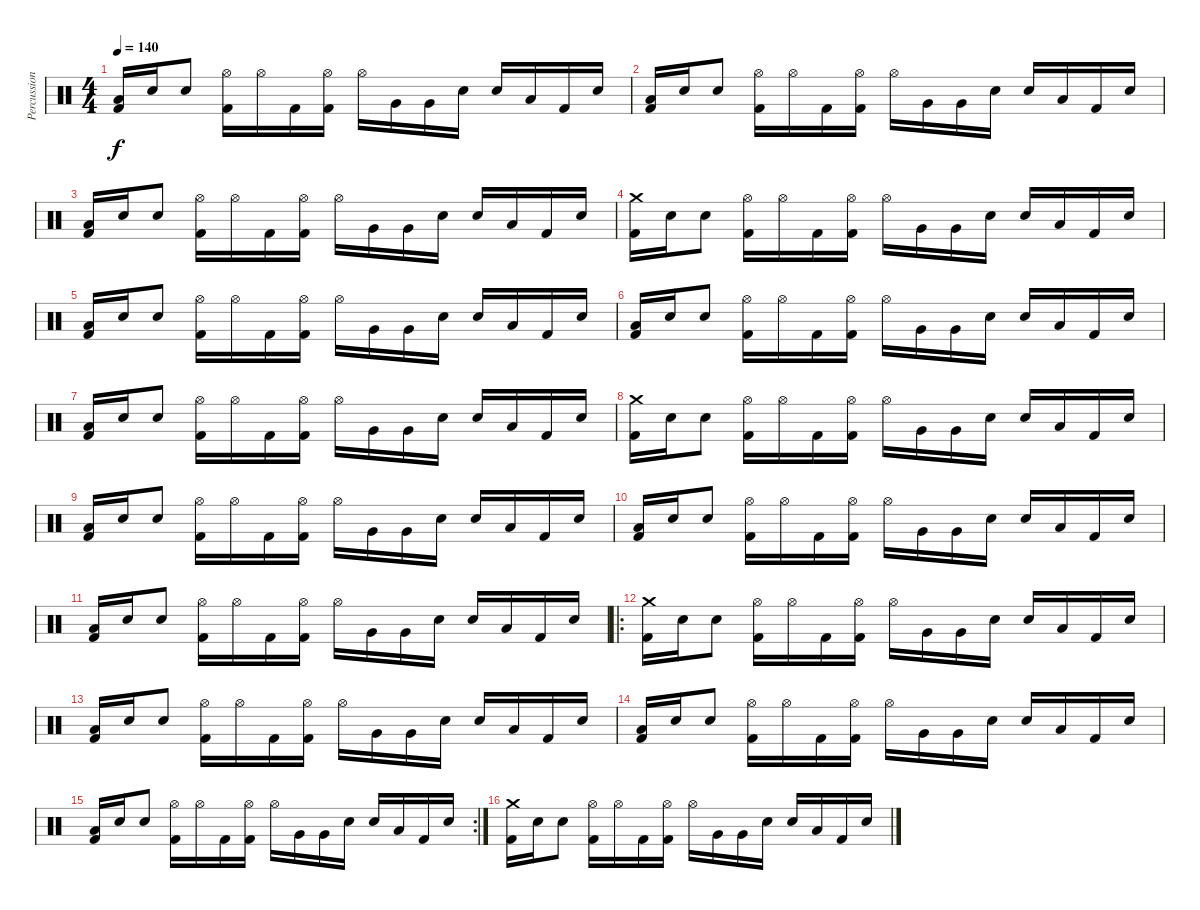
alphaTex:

\track ("Percussion" "Percussion") {instrument percussion}
\staff {score}
\articulation defaults
\ts (4 4)
\tempo 140
\clef neutral
\ks c
("Low Tom (hit)" "Kick (hit) 2").16{dy f} "Electric Snare (hit)".16 "Electric Snare (hit)".8 ("Hi-Hat (open)" "Kick (hit) 2").16 "Hi-Hat (open)".16 "Kick (hit) 2".16 ("Hi-Hat (open)" "Kick (hit) 2").16 "Hi-Hat (open)".16 "Very Low Tom (hit)".16 "Very Low Tom (hit)".16 "Electric Snare (hit)".16 "Electric Snare (hit)".16 "Low Tom (hit)".16 "Kick (hit) 2".16 "Electric Snare (hit)".16 |
("Low Tom (hit)" "Kick (hit) 2").16 "Electric Snare (hit)".16 "Electric Snare (hit)".8 ("Hi-Hat (open)" "Kick (hit) 2").16 "Hi-Hat (open)".16 "Kick (hit) 2".16 ("Hi-Hat (open)" "Kick (hit) 2").16 "Hi-Hat (open)".16 "Very Low Tom (hit)".16 "Very Low Tom (hit)".16 "Electric Snare (hit)".16 "Electric Snare (hit)".16 "Low Tom (hit)".16 "Kick (hit) 2".16 "Electric Snare (hit)".16 |
("Low Tom (hit)" "Kick (hit) 2").16 "Electric Snare (hit)".16 "Electric Snare (hit)".8 ("Hi-Hat (open)" "Kick (hit) 2").16 "Hi-Hat (open)".16 "Kick (hit) 2".16 ("Hi-Hat (open)" "Kick (hit) 2").16 "Hi-Hat (open)".16 "Very Low Tom (hit)".16 "Very Low Tom (hit)".16 "Electric Snare (hit)".16 "Electric Snare (hit)".16 "Low Tom (hit)".16 "Kick (hit) 2".16 "Electric Snare (hit)".16 |
("Crash medium (hit)" "Kick (hit) 2").16 "Electric Snare (hit)".16 "Electric Snare (hit)".8 ("Hi-Hat (open)" "Kick (hit) 2").16 "Hi-Hat (open)".16 "Kick (hit) 2".16 ("Hi-Hat (open)" "Kick (hit) 2").16 "Hi-Hat (open)".16 "Very Low Tom (hit)".16 "Very Low Tom (hit)".16 "Electric Snare (hit)".16 "Electric Snare (hit)".16 "Low Tom (hit)".16 "Kick (hit) 2".16 "Electric Snare (hit)".16 |
("Low Tom (hit)" "Kick (hit) 2").16 "Electric Snare (hit)".16 "Electric Snare (hit)".8 ("Hi-Hat (open)" "Kick (hit) 2").16 "Hi-Hat (open)".16 "Kick (hit) 2".16 ("Hi-Hat (open)" "Kick (hit) 2").16 "Hi-Hat (open)".16 "Very Low Tom (hit)".16 "Very Low Tom (hit)".16 "Electric Snare (hit)".16 "Electric Snare (hit)".16 "Low Tom (hit)".16 "Kick (hit) 2".16 "Electric Snare (hit)".16 |
("Low Tom (hit)" "Kick (hit) 2").16 "Electric Snare (hit)".16 "Electric Snare (hit)".8 ("Hi-Hat (open)" "Kick (hit) 2").16 "Hi-Hat (open)".16 "Kick (hit) 2".16 ("Hi-Hat (open)" "Kick (hit) 2").16 "Hi-Hat (open)".16 "Very Low Tom (hit)".16 "Very Low Tom (hit)".16 "Electric Snare (hit)".16 "Electric Snare (hit)".16 "Low Tom (hit)".16 "Kick (hit) 2".16 "Electric Snare (hit)".16 |
("Low Tom (hit)" "Kick (hit) 2").16 "Electric Snare (hit)".16 "Electric Snare (hit)".8 ("Hi-Hat (open)" "Kick (hit) 2").16 "Hi-Hat (open)".16 "Kick (hit) 2".16 ("Hi-Hat (open)" "Kick (hit) 2").16 "Hi-Hat (open)".16 "Very Low Tom (hit)".16 "Very Low Tom (hit)".16 "Electric Snare (hit)".16 "Electric Snare (hit)".16 "Low Tom (hit)".16 "Kick (hit) 2".16 "Electric Snare (hit)".16 |
("Crash medium (hit)" "Kick (hit) 2").16 "Electric Snare (hit)".16 "Electric Snare (hit)".8 ("Hi-Hat (open)" "Kick (hit) 2").16 "Hi-Hat (open)".16 "Kick (hit) 2".16 ("Hi-Hat (open)" "Kick (hit) 2").16 "Hi-Hat (open)".16 "Very Low Tom (hit)".16 "Very Low Tom (hit)".16 "Electric Snare (hit)".16 "Electric Snare (hit)".16 "Low Tom (hit)".16 "Kick (hit) 2".16 "Electric Snare (hit)".16 |
("Low Tom (hit)" "Kick (hit) 2").16 "Electric Snare (hit)".16 "Electric Snare (hit)".8 ("Hi-Hat (open)" "Kick (hit) 2").16 "Hi-Hat (open)".16 "Kick (hit) 2".16 ("Hi-Hat (open)" "Kick (hit) 2").16 "Hi-Hat (open)".16 "Very Low Tom (hit)".16 "Very Low Tom (hit)".16 "Electric Snare (hit)".16 "Electric Snare (hit)".16 "Low Tom (hit)".16 "Kick (hit) 2".16 "Electric Snare (hit)".16 |
("Low Tom (hit)" "Kick (hit) 2").16 "Electric Snare (hit)".16 "Electric Snare (hit)".8 ("Hi-Hat (open)" "Kick (hit) 2").16 "Hi-Hat (open)".16 "Kick (hit) 2".16 ("Hi-Hat (open)" "Kick (hit) 2").16 "Hi-Hat (open)".16 "Very Low Tom (hit)".16 "Very Low Tom (hit)".16 "Electric Snare (hit)".16 "Electric Snare (hit)".16 "Low Tom (hit)".16 "Kick (hit) 2".16 "Electric Snare (hit)".16 |
("Low Tom (hit)" "Kick (hit) 2").16 "Electric Snare (hit)".16 "Electric Snare (hit)".8 ("Hi-Hat (open)" "Kick (hit) 2").16 "Hi-Hat (open)".16 "Kick (hit) 2".16 ("Hi-Hat (open)" "Kick (hit) 2").16 "Hi-Hat (open)".16 "Very Low Tom (hit)".16 "Very Low Tom (hit)".16 "Electric Snare (hit)".16 "Electric Snare (hit)".16 "Low Tom (hit)".16 "Kick (hit) 2".16 "Electric Snare (hit)".16 |
\ro
("Crash medium (hit)" "Kick (hit) 2").16 "Electric Snare (hit)".16 "Electric Snare (hit)".8 ("Hi-Hat (open)" "Kick (hit) 2").16 "Hi-Hat (open)".16 "Kick (hit) 2".16 ("Hi-Hat (open)" "Kick (hit) 2").16 "Hi-Hat (open)".16 "Very Low Tom (hit)".16 "Very Low Tom (hit)".16 "Electric Snare (hit)".16 "Electric Snare (hit)".16 "Low Tom (hit)".16 "Kick (hit) 2".16 "Electric Snare (hit)".16 |
("Low Tom (hit)" "Kick (hit) 2").16 "Electric Snare (hit)".16 "Electric Snare (hit)".8 ("Hi-Hat (open)" "Kick (hit) 2").16 "Hi-Hat (open)".16 "Kick (hit) 2".16 ("Hi-Hat (open)" "Kick (hit) 2").16 "Hi-Hat (open)".16 "Very Low Tom (hit)".16 "Very Low Tom (hit)".16 "Electric Snare (hit)".16 "Electric Snare (hit)".16 "Low Tom (hit)".16 "Kick (hit) 2".16 "Electric Snare (hit)".16 |
("Low Tom (hit)" "Kick (hit) 2").16 "Electric Snare (hit)".16 "Electric Snare (hit)".8 ("Hi-Hat (open)" "Kick (hit) 2").16 "Hi-Hat (open)".16 "Kick (hit) 2".16 ("Hi-Hat (open)" "Kick (hit) 2").16 "Hi-Hat (open)".16 "Very Low Tom (hit)".16 "Very Low Tom (hit)".16 "Electric Snare (hit)".16 "Electric Snare (hit)".16 "Low Tom (hit)".16 "Kick (hit) 2".16 "Electric Snare (hit)".16 |
\rc 2
("Low Tom (hit)" "Kick (hit) 2").16 "Electric Snare (hit)".16 "Electric Snare (hit)".8 ("Hi-Hat (open)" "Kick (hit) 2").16 "Hi-Hat (open)".16 "Kick (hit) 2".16 ("Hi-Hat (open)" "Kick (hit) 2").16 "Hi-Hat (open)".16 "Very Low Tom (hit)".16 "Very Low Tom (hit)".16 "Electric Snare (hit)".16 "Electric Snare (hit)".16 "Low Tom (hit)".16 "Kick (hit) 2".16 "Electric Snare (hit)".16 |
("Crash medium (hit)" "Kick (hit) 2").16 "Electric Snare (hit)".16 "Electric Snare (hit)".8 ("Hi-Hat (open)" "Kick (hit) 2").16 "Hi-Hat (open)".16 "Kick (hit) 2".16 ("Hi-Hat (open)" "Kick (hit) 2").16 "Hi-Hat (open)".16 "Very Low Tom (hit)".16 "Very Low Tom (hit)".16 "Electric Snare (hit)".16 "Electric Snare (hit)".16 "Low Tom (hit)".16 "Kick (hit) 2".16 "Electric Snare (hit)".16
